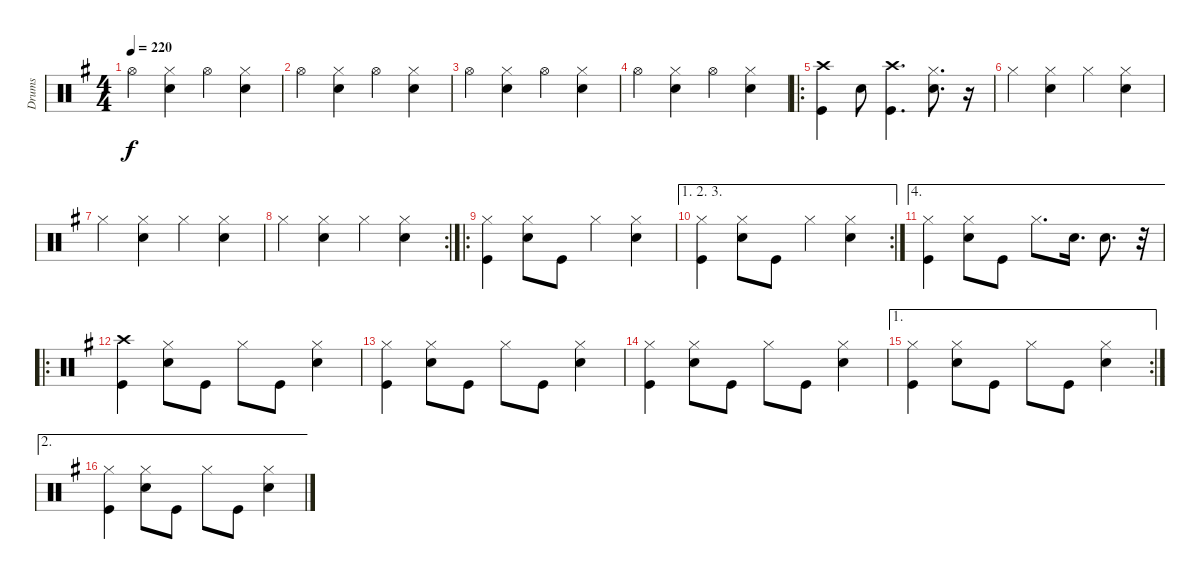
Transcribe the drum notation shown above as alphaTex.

\track ("Drums" "Drums") {instrument percussion}
\staff {score}
\articulation defaults
\ts (4 4)
\tempo 220
\clef neutral
\ks g "Hi-Hat (open)".4{dy f}
("Snare (hit) 2" "Hi-Hat (closed)").4 "Hi-Hat (open)".4 ("Snare (hit) 2" "Hi-Hat (closed)").4 |
"Hi-Hat (open)".4 ("Snare (hit) 2" "Hi-Hat (closed)").4 "Hi-Hat (open)".4 ("Snare (hit) 2" "Hi-Hat (closed)").4 |
"Hi-Hat (open)".4 ("Snare (hit) 2" "Hi-Hat (closed)").4 "Hi-Hat (open)".4 ("Snare (hit) 2" "Hi-Hat (closed)").4 |
"Hi-Hat (open)".4 ("Snare (hit) 2" "Hi-Hat (closed)").4 "Hi-Hat (open)".4 ("Snare (hit) 2" "Hi-Hat (closed)").4 |
\ro
("Crash high (hit)" "Kick (hit)").4 "Snare (hit) 2".8 ("Crash high (hit)" "Kick (hit)").4{d} ("Hi-Hat (closed)" "Snare (hit) 2").8{d} r.16 |
"Hi-Hat (closed)".4 ("Hi-Hat (closed)" "Snare (hit) 2").4 "Hi-Hat (closed)".4 ("Hi-Hat (closed)" "Snare (hit) 2").4 |
"Hi-Hat (closed)".4 ("Hi-Hat (closed)" "Snare (hit) 2").4 "Hi-Hat (closed)".4 ("Hi-Hat (closed)" "Snare (hit) 2").4 |
\rc 2 "Hi-Hat (closed)".4
("Hi-Hat (closed)" "Snare (hit) 2").4 "Hi-Hat (closed)".4 ("Hi-Hat (closed)" "Snare (hit) 2").4 |
\ro
("Hi-Hat (closed)" "Kick (hit)").4 ("Hi-Hat (closed)" "Snare (hit) 2").8 "Kick (hit)".8 "Hi-Hat (closed)".4 ("Hi-Hat (closed)" "Snare (hit) 2").4 |
\ae (1 2 3)
\rc 2
("Hi-Hat (closed)" "Kick (hit)").4 ("Hi-Hat (closed)" "Snare (hit) 2").8 "Kick (hit)".8 "Hi-Hat (closed)".4 ("Hi-Hat (closed)" "Snare (hit) 2").4 |
\ae 4
("Hi-Hat (closed)" "Kick (hit)").4 ("Hi-Hat (closed)" "Snare (hit) 2").8 "Kick (hit)".8 "Hi-Hat (closed)".8{d} "Snare (hit) 2".16{d} "Snare (hit) 2".8{d} r.32 |
\ro
("Crash high (hit)" "Kick (hit)").4 ("Hi-Hat (closed)" "Snare (hit) 2").8 "Kick (hit)".8 "Hi-Hat (closed)".8 "Kick (hit)".8 ("Hi-Hat (closed)" "Snare (hit) 2").4 |
("Hi-Hat (closed)" "Kick (hit)").4 ("Hi-Hat (closed)" "Snare (hit) 2").8 "Kick (hit)".8 "Hi-Hat (closed)".8 "Kick (hit)".8 ("Hi-Hat (closed)" "Snare (hit) 2").4 |
("Hi-Hat (closed)" "Kick (hit)").4 ("Hi-Hat (closed)" "Snare (hit) 2").8 "Kick (hit)".8 "Hi-Hat (closed)".8 "Kick (hit)".8 ("Hi-Hat (closed)" "Snare (hit) 2").4 |
\ae 1
\rc 2
("Hi-Hat (closed)" "Kick (hit)").4 ("Hi-Hat (closed)" "Snare (hit) 2").8 "Kick (hit)".8 "Hi-Hat (closed)".8 "Kick (hit)".8 ("Hi-Hat (closed)" "Snare (hit) 2").4 |
\ae 2
("Hi-Hat (closed)" "Kick (hit)").4 ("Hi-Hat (closed)" "Snare (hit) 2").8 "Kick (hit)".8 "Hi-Hat (closed)".8 "Kick (hit)".8 ("Hi-Hat (closed)" "Snare (hit) 2").4
